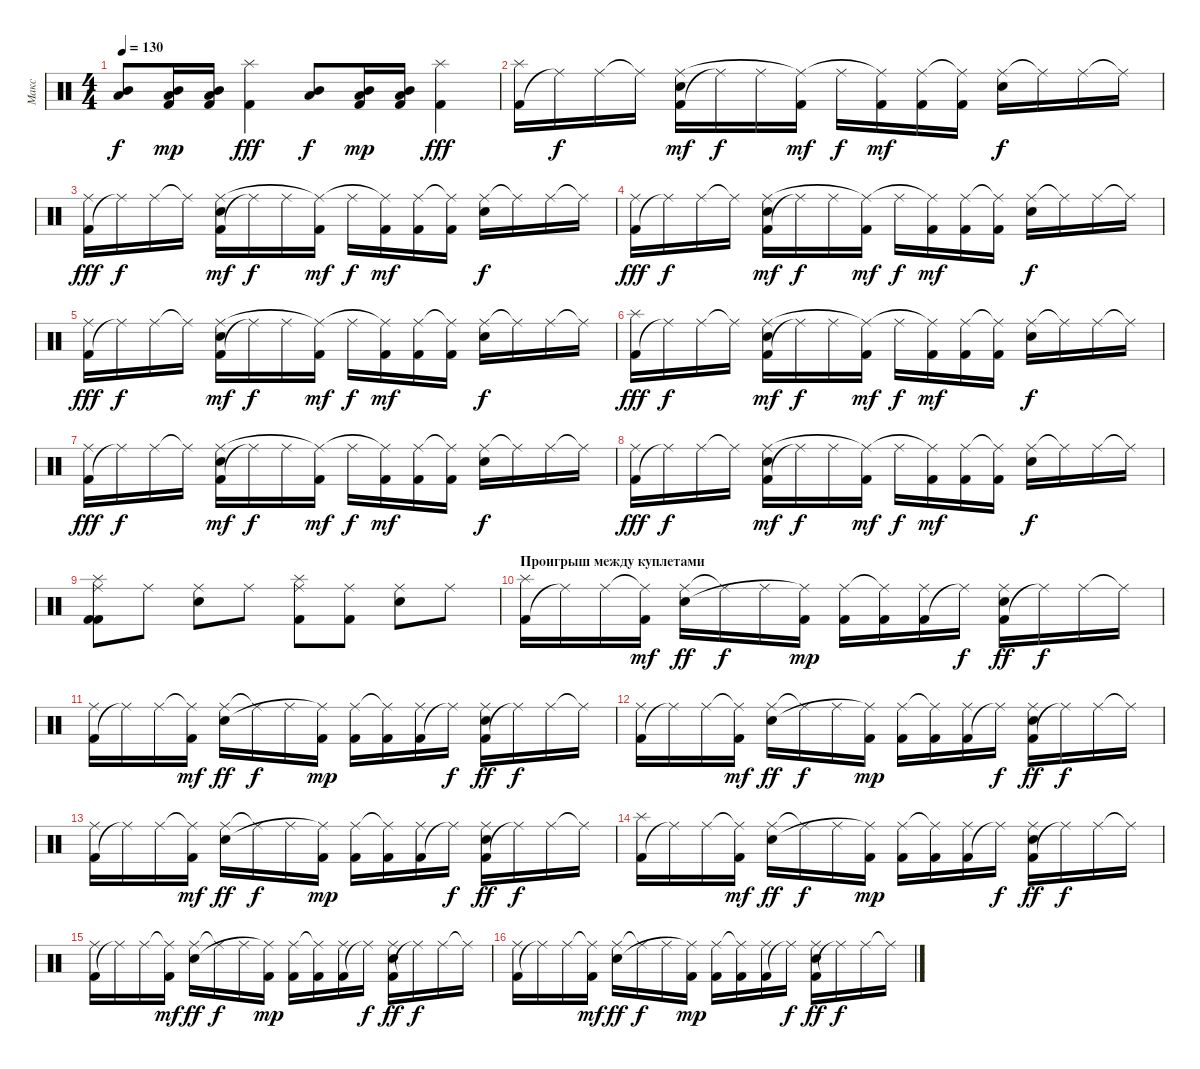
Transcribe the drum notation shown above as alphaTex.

\track ("Макс" "Макс") {instrument percussion}
\staff {score}
\articulation defaults
\ts (4 4)
\tempo 130
\clef neutral
\ks c
("Low Tom (hit)" "Mid Tom (hit)").8{dy f} ("Kick (hit) 2" "Mid Tom (hit)" "Low Tom (hit)").16{dy mp} ("Kick (hit) 2" "Mid Tom (hit)" "Low Tom (hit)").16 ("Kick (hit) 2" "Splash (hit)").4{dy fff} ("Low Tom (hit)" "Mid Tom (hit)").8{dy f} ("Kick (hit) 2" "Mid Tom (hit)" "Low Tom (hit)").16{dy mp} ("Kick (hit) 2" "Low Tom (hit)" "Mid Tom (hit)").16 ("Kick (hit) 2" "Splash (hit)").4{dy fff} |
("Kick (hit) 2" "Splash (hit)").16 "Ride (middle)"{t}.16{dy f} "Ride (middle)".16 "Ride (middle)"{t}.16 ("Kick (hit) 2" "Ride (middle)" "Electric Snare (hit)").16{dy mf} "Ride (middle)"{t}.16{dy f} "Ride (middle)".16 ("Kick (hit) 2" "Ride (middle)"{t}).16{dy mf} "Ride (middle)".16{dy f} ("Kick (hit) 2" "Ride (middle)"{t}).16{dy mf} ("Kick (hit) 2" "Ride (middle)").16 ("Kick (hit) 2" "Ride (middle)"{t}).16 ("Ride (middle)" "Electric Snare (hit)").16{dy f} "Ride (middle)"{t}.16 "Ride (middle)".16 "Ride (middle)"{t}.16 |
("Kick (hit) 2" "Ride (middle)").16{dy fff} "Ride (middle)"{t}.16{dy f} "Ride (middle)".16 "Ride (middle)"{t}.16 ("Kick (hit) 2" "Ride (middle)" "Electric Snare (hit)").16{dy mf} "Ride (middle)"{t}.16{dy f} "Ride (middle)".16 ("Kick (hit) 2" "Ride (middle)"{t}).16{dy mf} "Ride (middle)".16{dy f} ("Kick (hit) 2" "Ride (middle)"{t}).16{dy mf} ("Kick (hit) 2" "Ride (middle)").16 ("Kick (hit) 2" "Ride (middle)"{t}).16 ("Ride (middle)" "Electric Snare (hit)").16{dy f} "Ride (middle)"{t}.16 "Ride (middle)".16 "Ride (middle)"{t}.16 |
("Kick (hit) 2" "Ride (middle)").16{dy fff} "Ride (middle)"{t}.16{dy f} "Ride (middle)".16 "Ride (middle)"{t}.16 ("Kick (hit) 2" "Ride (middle)" "Electric Snare (hit)").16{dy mf} "Ride (middle)"{t}.16{dy f} "Ride (middle)".16 ("Kick (hit) 2" "Ride (middle)"{t}).16{dy mf} "Ride (middle)".16{dy f} ("Kick (hit) 2" "Ride (middle)"{t}).16{dy mf} ("Kick (hit) 2" "Ride (middle)").16 ("Kick (hit) 2" "Ride (middle)"{t}).16 ("Ride (middle)" "Electric Snare (hit)").16{dy f} "Ride (middle)"{t}.16 "Ride (middle)".16 "Ride (middle)"{t}.16 |
("Kick (hit) 2" "Ride (middle)").16{dy fff} "Ride (middle)"{t}.16{dy f} "Ride (middle)".16 "Ride (middle)"{t}.16 ("Kick (hit) 2" "Ride (middle)" "Electric Snare (hit)").16{dy mf} "Ride (middle)"{t}.16{dy f} "Ride (middle)".16 ("Kick (hit) 2" "Ride (middle)"{t}).16{dy mf} "Ride (middle)".16{dy f} ("Kick (hit) 2" "Ride (middle)"{t}).16{dy mf} ("Kick (hit) 2" "Ride (middle)").16 ("Kick (hit) 2" "Ride (middle)"{t}).16 ("Ride (middle)" "Electric Snare (hit)").16{dy f} "Ride (middle)"{t}.16 "Ride (middle)".16 "Ride (middle)"{t}.16 |
("Kick (hit) 2" "Splash (hit)").16{dy fff} "Ride (middle)"{t}.16{dy f} "Ride (middle)".16 "Ride (middle)"{t}.16 ("Kick (hit) 2" "Ride (middle)" "Electric Snare (hit)").16{dy mf} "Ride (middle)"{t}.16{dy f} "Ride (middle)".16 ("Kick (hit) 2" "Ride (middle)"{t}).16{dy mf} "Ride (middle)".16{dy f} ("Kick (hit) 2" "Ride (middle)"{t}).16{dy mf} ("Kick (hit) 2" "Ride (middle)").16 ("Kick (hit) 2" "Ride (middle)"{t}).16 ("Ride (middle)" "Electric Snare (hit)").16{dy f} "Ride (middle)"{t}.16 "Ride (middle)".16 "Ride (middle)"{t}.16 |
("Kick (hit) 2" "Ride (middle)").16{dy fff} "Ride (middle)"{t}.16{dy f} "Ride (middle)".16 "Ride (middle)"{t}.16 ("Kick (hit) 2" "Ride (middle)" "Electric Snare (hit)").16{dy mf} "Ride (middle)"{t}.16{dy f} "Ride (middle)".16 ("Kick (hit) 2" "Ride (middle)"{t}).16{dy mf} "Ride (middle)".16{dy f} ("Kick (hit) 2" "Ride (middle)"{t}).16{dy mf} ("Kick (hit) 2" "Ride (middle)").16 ("Kick (hit) 2" "Ride (middle)"{t}).16 ("Ride (middle)" "Electric Snare (hit)").16{dy f} "Ride (middle)"{t}.16 "Ride (middle)".16 "Ride (middle)"{t}.16 |
("Kick (hit) 2" "Ride (middle)").16{dy fff} "Ride (middle)"{t}.16{dy f} "Ride (middle)".16 "Ride (middle)"{t}.16 ("Kick (hit) 2" "Ride (middle)" "Electric Snare (hit)").16{dy mf} "Ride (middle)"{t}.16{dy f} "Ride (middle)".16 ("Kick (hit) 2" "Ride (middle)"{t}).16{dy mf} "Ride (middle)".16{dy f} ("Kick (hit) 2" "Ride (middle)"{t}).16{dy mf} ("Kick (hit) 2" "Ride (middle)").16 ("Kick (hit) 2" "Ride (middle)"{t}).16 ("Ride (middle)" "Electric Snare (hit)").16{dy f} "Ride (middle)"{t}.16 "Ride (middle)".16 "Ride (middle)"{t}.16 |
("Splash (hit)" "Kick (hit) 2" "Ride (middle)" "Kick (hit) 2").8 "Ride (middle)".8 ("Ride (middle)" "Electric Snare (hit)").8 "Ride (middle)".8 ("Splash (hit)" "Kick (hit) 2" "Ride (middle)").8 ("Ride (middle)" "Kick (hit) 2").8 ("Ride (middle)" "Electric Snare (hit)").8 "Ride (middle)".8 |
\section ("" "Проигрыш между куплетами")
("Kick (hit) 2" "Splash (hit)").16 "Ride (middle)"{t}.16 "Ride (middle)".16 ("Ride (middle)"{t} "Kick (hit) 2").16{dy mf} ("Ride (middle)" "Electric Snare (hit)").16{dy ff} "Ride (middle)"{t}.16{dy f} "Ride (middle)".16 ("Kick (hit) 2" "Ride (middle)"{t}).16{dy mp} ("Kick (hit) 2" "Ride (middle)").16 ("Kick (hit) 2" "Ride (middle)"{t}).16 ("Kick (hit) 2" "Ride (middle)").16 "Ride (middle)"{t}.16{dy f} ("Kick (hit) 2" "Ride (middle)" "Electric Snare (hit)").16{dy ff} "Ride (middle)"{t}.16{dy f} "Ride (middle)".16 "Ride (middle)"{t}.16 |
("Kick (hit) 2" "Ride (middle)").16 "Ride (middle)"{t}.16 "Ride (middle)".16 ("Ride (middle)"{t} "Kick (hit) 2").16{dy mf} ("Ride (middle)" "Electric Snare (hit)").16{dy ff} "Ride (middle)"{t}.16{dy f} "Ride (middle)".16 ("Kick (hit) 2" "Ride (middle)"{t}).16{dy mp} ("Kick (hit) 2" "Ride (middle)").16 ("Kick (hit) 2" "Ride (middle)"{t}).16 ("Kick (hit) 2" "Ride (middle)").16 "Ride (middle)"{t}.16{dy f} ("Kick (hit) 2" "Ride (middle)" "Electric Snare (hit)").16{dy ff} "Ride (middle)"{t}.16{dy f} "Ride (middle)".16 "Ride (middle)"{t}.16 |
("Kick (hit) 2" "Ride (middle)").16 "Ride (middle)"{t}.16 "Ride (middle)".16 ("Ride (middle)"{t} "Kick (hit) 2").16{dy mf} ("Ride (middle)" "Electric Snare (hit)").16{dy ff} "Ride (middle)"{t}.16{dy f} "Ride (middle)".16 ("Kick (hit) 2" "Ride (middle)"{t}).16{dy mp} ("Kick (hit) 2" "Ride (middle)").16 ("Kick (hit) 2" "Ride (middle)"{t}).16 ("Kick (hit) 2" "Ride (middle)").16 "Ride (middle)"{t}.16{dy f} ("Kick (hit) 2" "Ride (middle)" "Electric Snare (hit)").16{dy ff} "Ride (middle)"{t}.16{dy f} "Ride (middle)".16 "Ride (middle)"{t}.16 |
("Kick (hit) 2" "Ride (middle)").16 "Ride (middle)"{t}.16 "Ride (middle)".16 ("Ride (middle)"{t} "Kick (hit) 2").16{dy mf} ("Ride (middle)" "Electric Snare (hit)").16{dy ff} "Ride (middle)"{t}.16{dy f} "Ride (middle)".16 ("Kick (hit) 2" "Ride (middle)"{t}).16{dy mp} ("Kick (hit) 2" "Ride (middle)").16 ("Kick (hit) 2" "Ride (middle)"{t}).16 ("Kick (hit) 2" "Ride (middle)").16 "Ride (middle)"{t}.16{dy f} ("Kick (hit) 2" "Ride (middle)" "Electric Snare (hit)").16{dy ff} "Ride (middle)"{t}.16{dy f} "Ride (middle)".16 "Ride (middle)"{t}.16 |
("Kick (hit) 2" "Splash (hit)").16 "Ride (middle)"{t}.16 "Ride (middle)".16 ("Ride (middle)"{t} "Kick (hit) 2").16{dy mf} ("Ride (middle)" "Electric Snare (hit)").16{dy ff} "Ride (middle)"{t}.16{dy f} "Ride (middle)".16 ("Kick (hit) 2" "Ride (middle)"{t}).16{dy mp} ("Kick (hit) 2" "Ride (middle)").16 ("Kick (hit) 2" "Ride (middle)"{t}).16 ("Kick (hit) 2" "Ride (middle)").16 "Ride (middle)"{t}.16{dy f} ("Kick (hit) 2" "Ride (middle)" "Electric Snare (hit)").16{dy ff} "Ride (middle)"{t}.16{dy f} "Ride (middle)".16 "Ride (middle)"{t}.16 |
("Kick (hit) 2" "Ride (middle)").16 "Ride (middle)"{t}.16 "Ride (middle)".16 ("Ride (middle)"{t} "Kick (hit) 2").16{dy mf} ("Ride (middle)" "Electric Snare (hit)").16{dy ff} "Ride (middle)"{t}.16{dy f} "Ride (middle)".16 ("Kick (hit) 2" "Ride (middle)"{t}).16{dy mp} ("Kick (hit) 2" "Ride (middle)").16 ("Kick (hit) 2" "Ride (middle)"{t}).16 ("Kick (hit) 2" "Ride (middle)").16 "Ride (middle)"{t}.16{dy f} ("Kick (hit) 2" "Ride (middle)" "Electric Snare (hit)").16{dy ff} "Ride (middle)"{t}.16{dy f} "Ride (middle)".16 "Ride (middle)"{t}.16 |
("Kick (hit) 2" "Ride (middle)").16 "Ride (middle)"{t}.16 "Ride (middle)".16 ("Ride (middle)"{t} "Kick (hit) 2").16{dy mf} ("Ride (middle)" "Electric Snare (hit)").16{dy ff} "Ride (middle)"{t}.16{dy f} "Ride (middle)".16 ("Kick (hit) 2" "Ride (middle)"{t}).16{dy mp} ("Kick (hit) 2" "Ride (middle)").16 ("Kick (hit) 2" "Ride (middle)"{t}).16 ("Kick (hit) 2" "Ride (middle)").16 "Ride (middle)"{t}.16{dy f} ("Kick (hit) 2" "Ride (middle)" "Electric Snare (hit)").16{dy ff} "Ride (middle)"{t}.16{dy f} "Ride (middle)".16 "Ride (middle)"{t}.16
